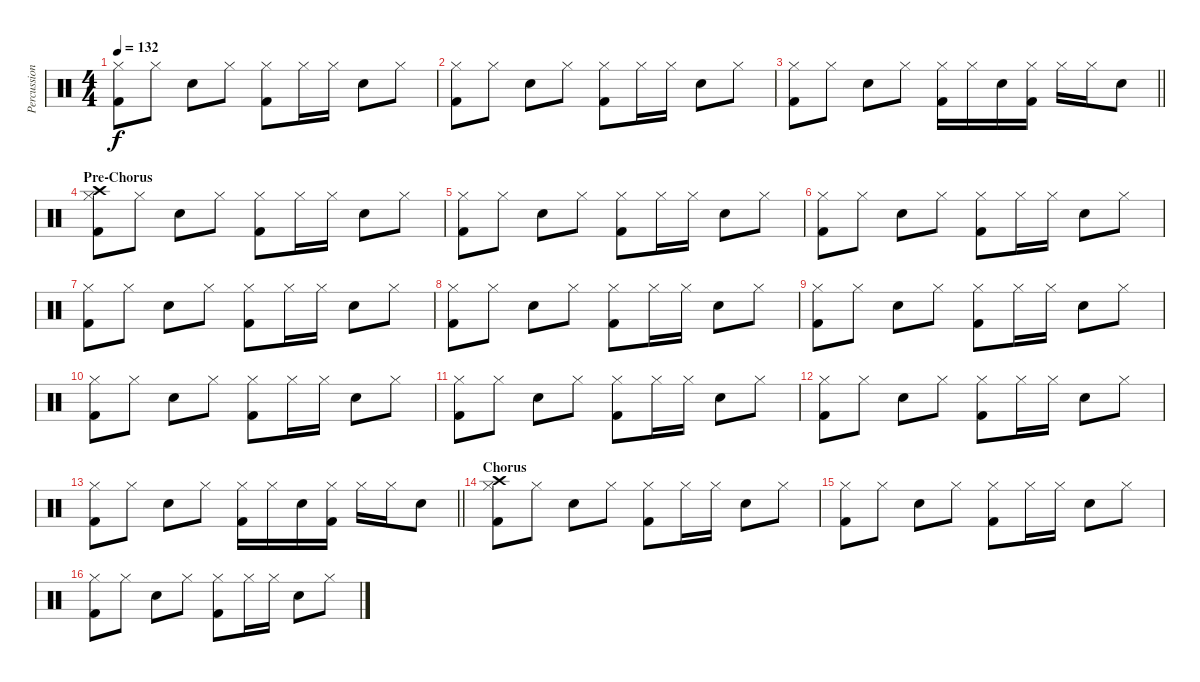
\track ("Percussion" "Percussion") {instrument percussion}
\staff {score}
\articulation defaults
\ts (4 4)
\tempo 132
\clef neutral
\ks c
("Hi-Hat (closed)" "Kick (hit) 2").8{dy f} "Hi-Hat (closed)".8 "Snare (hit) 2".8 "Hi-Hat (closed)".8 ("Hi-Hat (closed)" "Kick (hit) 2").8 "Hi-Hat (closed)".16 "Hi-Hat (closed)".16 "Snare (hit) 2".8 "Hi-Hat (closed)".8 |
("Hi-Hat (closed)" "Kick (hit) 2").8 "Hi-Hat (closed)".8 "Snare (hit) 2".8 "Hi-Hat (closed)".8 ("Hi-Hat (closed)" "Kick (hit) 2").8 "Hi-Hat (closed)".16 "Hi-Hat (closed)".16 "Snare (hit) 2".8 "Hi-Hat (closed)".8 |
\barLineRight lightlight
("Hi-Hat (closed)" "Kick (hit) 2").8 "Hi-Hat (closed)".8 "Snare (hit) 2".8 "Hi-Hat (closed)".8 ("Hi-Hat (closed)" "Kick (hit) 2").16 "Hi-Hat (closed)".16 "Snare (hit) 2".16 ("Hi-Hat (closed)" "Kick (hit) 2").16 "Hi-Hat (closed)".16 "Hi-Hat (closed)".16 "Snare (hit) 2".8 |
\section ("" "Pre-Chorus")
("Crash high (hit)" "Hi-Hat (closed)" "Kick (hit) 2").8 "Hi-Hat (closed)".8 "Snare (hit) 2".8 "Hi-Hat (closed)".8 ("Hi-Hat (closed)" "Kick (hit) 2").8 "Hi-Hat (closed)".16 "Hi-Hat (closed)".16 "Snare (hit) 2".8 "Hi-Hat (closed)".8 |
("Hi-Hat (closed)" "Kick (hit) 2").8 "Hi-Hat (closed)".8 "Snare (hit) 2".8 "Hi-Hat (closed)".8 ("Hi-Hat (closed)" "Kick (hit) 2").8 "Hi-Hat (closed)".16 "Hi-Hat (closed)".16 "Snare (hit) 2".8 "Hi-Hat (closed)".8 |
("Hi-Hat (closed)" "Kick (hit) 2").8 "Hi-Hat (closed)".8 "Snare (hit) 2".8 "Hi-Hat (closed)".8 ("Hi-Hat (closed)" "Kick (hit) 2").8 "Hi-Hat (closed)".16 "Hi-Hat (closed)".16 "Snare (hit) 2".8 "Hi-Hat (closed)".8 |
("Hi-Hat (closed)" "Kick (hit) 2").8 "Hi-Hat (closed)".8 "Snare (hit) 2".8 "Hi-Hat (closed)".8 ("Hi-Hat (closed)" "Kick (hit) 2").8 "Hi-Hat (closed)".16 "Hi-Hat (closed)".16 "Snare (hit) 2".8 "Hi-Hat (closed)".8 |
("Hi-Hat (closed)" "Kick (hit) 2").8 "Hi-Hat (closed)".8 "Snare (hit) 2".8 "Hi-Hat (closed)".8 ("Hi-Hat (closed)" "Kick (hit) 2").8 "Hi-Hat (closed)".16 "Hi-Hat (closed)".16 "Snare (hit) 2".8 "Hi-Hat (closed)".8 |
("Hi-Hat (closed)" "Kick (hit) 2").8 "Hi-Hat (closed)".8 "Snare (hit) 2".8 "Hi-Hat (closed)".8 ("Hi-Hat (closed)" "Kick (hit) 2").8 "Hi-Hat (closed)".16 "Hi-Hat (closed)".16 "Snare (hit) 2".8 "Hi-Hat (closed)".8 |
("Hi-Hat (closed)" "Kick (hit) 2").8 "Hi-Hat (closed)".8 "Snare (hit) 2".8 "Hi-Hat (closed)".8 ("Hi-Hat (closed)" "Kick (hit) 2").8 "Hi-Hat (closed)".16 "Hi-Hat (closed)".16 "Snare (hit) 2".8 "Hi-Hat (closed)".8 |
("Hi-Hat (closed)" "Kick (hit) 2").8 "Hi-Hat (closed)".8 "Snare (hit) 2".8 "Hi-Hat (closed)".8 ("Hi-Hat (closed)" "Kick (hit) 2").8 "Hi-Hat (closed)".16 "Hi-Hat (closed)".16 "Snare (hit) 2".8 "Hi-Hat (closed)".8 |
("Hi-Hat (closed)" "Kick (hit) 2").8 "Hi-Hat (closed)".8 "Snare (hit) 2".8 "Hi-Hat (closed)".8 ("Hi-Hat (closed)" "Kick (hit) 2").8 "Hi-Hat (closed)".16 "Hi-Hat (closed)".16 "Snare (hit) 2".8 "Hi-Hat (closed)".8 |
\barLineRight lightlight
("Hi-Hat (closed)" "Kick (hit) 2").8 "Hi-Hat (closed)".8 "Snare (hit) 2".8 "Hi-Hat (closed)".8 ("Hi-Hat (closed)" "Kick (hit) 2").16 "Hi-Hat (closed)".16 "Snare (hit) 2".16 ("Hi-Hat (closed)" "Kick (hit) 2").16 "Hi-Hat (closed)".16 "Hi-Hat (closed)".16 "Snare (hit) 2".8 |
\section ("" "Chorus")
("Crash high (hit)" "Hi-Hat (closed)" "Kick (hit) 2").8 "Hi-Hat (closed)".8 "Snare (hit) 2".8 "Hi-Hat (closed)".8 ("Hi-Hat (closed)" "Kick (hit) 2").8 "Hi-Hat (closed)".16 "Hi-Hat (closed)".16 "Snare (hit) 2".8 "Hi-Hat (closed)".8 |
("Hi-Hat (closed)" "Kick (hit) 2").8 "Hi-Hat (closed)".8 "Snare (hit) 2".8 "Hi-Hat (closed)".8 ("Hi-Hat (closed)" "Kick (hit) 2").8 "Hi-Hat (closed)".16 "Hi-Hat (closed)".16 "Snare (hit) 2".8 "Hi-Hat (closed)".8 |
("Hi-Hat (closed)" "Kick (hit) 2").8 "Hi-Hat (closed)".8 "Snare (hit) 2".8 "Hi-Hat (closed)".8 ("Hi-Hat (closed)" "Kick (hit) 2").8 "Hi-Hat (closed)".16 "Hi-Hat (closed)".16 "Snare (hit) 2".8 "Hi-Hat (closed)".8
